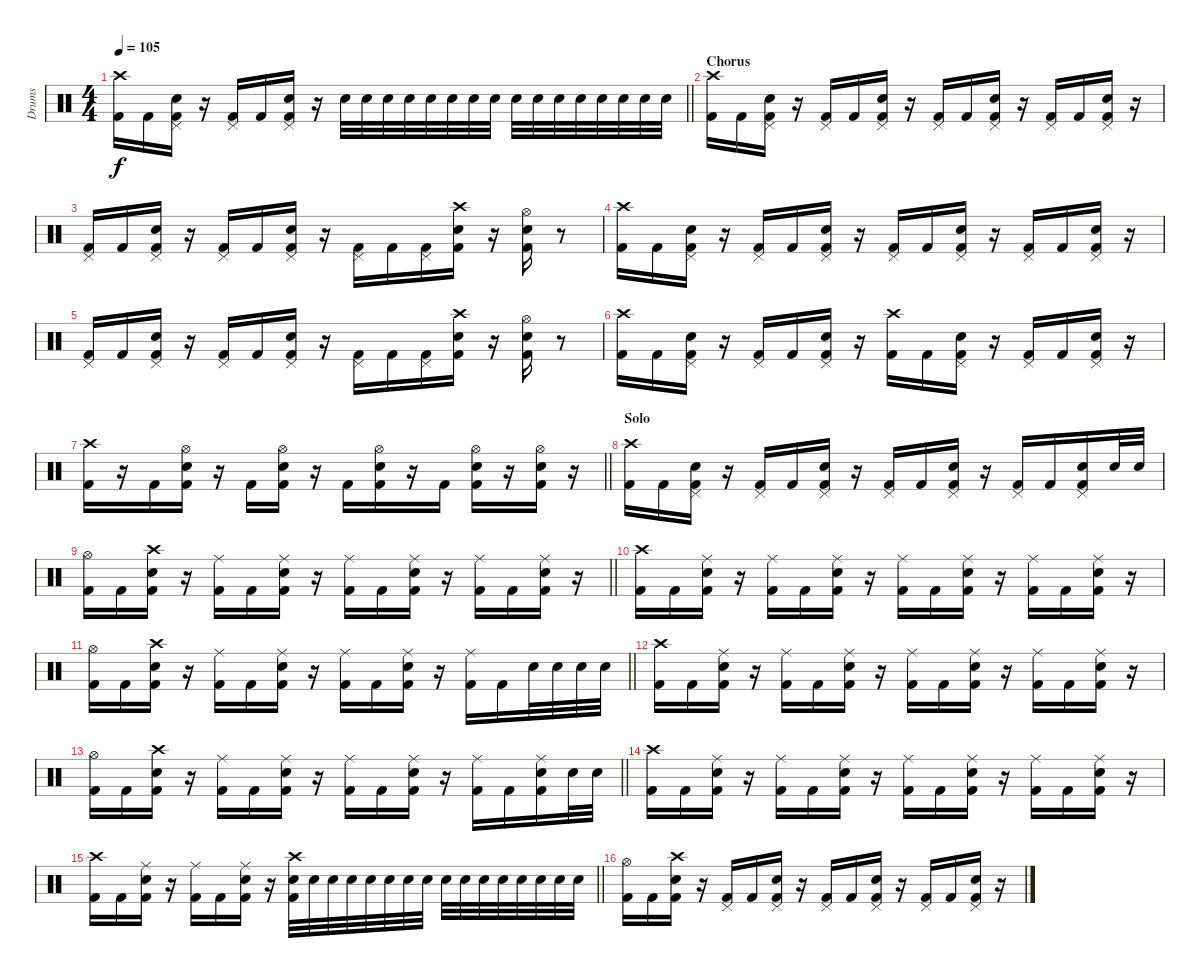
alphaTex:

\track ("Drums" "Drums") {instrument percussion}
\staff {score}
\articulation defaults
\ts (4 4)
\tempo 105
\clef neutral
\barLineRight lightlight
\ks c
("Crash high (hit)" "Kick (hit) 2").16{dy f} "Kick (hit) 2".16 ("Pedal Hi-Hat (hit)" "Snare (hit) 2" "Kick (hit) 2").16 r.16 ("Pedal Hi-Hat (hit)" "Kick (hit) 2").16 "Kick (hit) 2".16 ("Pedal Hi-Hat (hit)" "Snare (hit) 2" "Kick (hit) 2").16 r.16 "Snare (hit) 2".32 "Snare (hit) 2".32 "Snare (hit) 2".32 "Snare (hit) 2".32 "Snare (hit) 2".32 "Snare (hit) 2".32 "Snare (hit) 2".32 "Snare (hit) 2".32 "Snare (hit) 2".32 "Snare (hit) 2".32 "Snare (hit) 2".32 "Snare (hit) 2".32 "Snare (hit) 2".32 "Snare (hit) 2".32 "Snare (hit) 2".32 "Snare (hit) 2".32 |
\section ("" "Chorus")
("Crash high (hit)" "Kick (hit) 2").16 "Kick (hit) 2".16 ("Pedal Hi-Hat (hit)" "Snare (hit) 2" "Kick (hit) 2").16 r.16 ("Pedal Hi-Hat (hit)" "Kick (hit) 2").16 "Kick (hit) 2".16 ("Pedal Hi-Hat (hit)" "Snare (hit) 2" "Kick (hit) 2").16 r.16 ("Pedal Hi-Hat (hit)" "Kick (hit) 2").16 "Kick (hit) 2".16 ("Pedal Hi-Hat (hit)" "Snare (hit) 2" "Kick (hit) 2").16 r.16 ("Pedal Hi-Hat (hit)" "Kick (hit) 2").16 "Kick (hit) 2".16 ("Pedal Hi-Hat (hit)" "Snare (hit) 2" "Kick (hit) 2").16 r.16 |
("Pedal Hi-Hat (hit)" "Kick (hit) 2").16 "Kick (hit) 2".16 ("Pedal Hi-Hat (hit)" "Snare (hit) 2" "Kick (hit) 2").16 r.16 ("Pedal Hi-Hat (hit)" "Kick (hit) 2").16 "Kick (hit) 2".16 ("Pedal Hi-Hat (hit)" "Snare (hit) 2" "Kick (hit) 2").16 r.16 ("Pedal Hi-Hat (hit)" "Kick (hit) 2").16 "Kick (hit) 2".16 ("Pedal Hi-Hat (hit)" "Kick (hit) 2").16 ("Crash high (hit)" "Snare (hit) 2" "Kick (hit) 2").16 r.16 ("Hi-Hat (open)" "Snare (hit) 2" "Kick (hit) 2").16 r.8 |
("Crash high (hit)" "Kick (hit) 2").16 "Kick (hit) 2".16 ("Pedal Hi-Hat (hit)" "Snare (hit) 2" "Kick (hit) 2").16 r.16 ("Pedal Hi-Hat (hit)" "Kick (hit) 2").16 "Kick (hit) 2".16 ("Pedal Hi-Hat (hit)" "Snare (hit) 2" "Kick (hit) 2").16 r.16 ("Pedal Hi-Hat (hit)" "Kick (hit) 2").16 "Kick (hit) 2".16 ("Pedal Hi-Hat (hit)" "Snare (hit) 2" "Kick (hit) 2").16 r.16 ("Pedal Hi-Hat (hit)" "Kick (hit) 2").16 "Kick (hit) 2".16 ("Pedal Hi-Hat (hit)" "Snare (hit) 2" "Kick (hit) 2").16 r.16 |
("Pedal Hi-Hat (hit)" "Kick (hit) 2").16 "Kick (hit) 2".16 ("Pedal Hi-Hat (hit)" "Snare (hit) 2" "Kick (hit) 2").16 r.16 ("Pedal Hi-Hat (hit)" "Kick (hit) 2").16 "Kick (hit) 2".16 ("Pedal Hi-Hat (hit)" "Snare (hit) 2" "Kick (hit) 2").16 r.16 ("Pedal Hi-Hat (hit)" "Kick (hit) 2").16 "Kick (hit) 2".16 ("Pedal Hi-Hat (hit)" "Kick (hit) 2").16 ("Crash high (hit)" "Snare (hit) 2" "Kick (hit) 2").16 r.16 ("Hi-Hat (open)" "Snare (hit) 2" "Kick (hit) 2").16 r.8 |
("Crash high (hit)" "Kick (hit) 2").16 "Kick (hit) 2".16 ("Pedal Hi-Hat (hit)" "Snare (hit) 2" "Kick (hit) 2").16 r.16 ("Pedal Hi-Hat (hit)" "Kick (hit) 2").16 "Kick (hit) 2".16 ("Pedal Hi-Hat (hit)" "Snare (hit) 2" "Kick (hit) 2").16 r.16 ("Crash high (hit)" "Kick (hit) 2").16 "Kick (hit) 2".16 ("Pedal Hi-Hat (hit)" "Snare (hit) 2" "Kick (hit) 2").16 r.16 ("Pedal Hi-Hat (hit)" "Kick (hit) 2").16 "Kick (hit) 2".16 ("Pedal Hi-Hat (hit)" "Snare (hit) 2" "Kick (hit) 2").16 r.16 |
\barLineRight lightlight
("Crash high (hit)" "Kick (hit) 2").16 r.16 "Kick (hit) 2".16 ("Hi-Hat (open)" "Snare (hit) 2" "Kick (hit) 2").16 r.16 "Kick (hit) 2".16 ("Hi-Hat (open)" "Snare (hit) 2" "Kick (hit) 2").16 r.16 "Kick (hit) 2".16 ("Hi-Hat (open)" "Snare (hit) 2" "Kick (hit) 2").16 r.16 "Kick (hit) 2".16 ("Hi-Hat (open)" "Snare (hit) 2" "Kick (hit) 2").16 r.16 ("Hi-Hat (open)" "Snare (hit) 2" "Kick (hit) 2").16 r.16 |
\section ("" "Solo")
("Crash high (hit)" "Kick (hit) 2").16 "Kick (hit) 2".16 ("Pedal Hi-Hat (hit)" "Snare (hit) 2" "Kick (hit) 2").16 r.16 ("Pedal Hi-Hat (hit)" "Kick (hit) 2").16 "Kick (hit) 2".16 ("Pedal Hi-Hat (hit)" "Snare (hit) 2" "Kick (hit) 2").16 r.16 ("Pedal Hi-Hat (hit)" "Kick (hit) 2").16 "Kick (hit) 2".16 ("Pedal Hi-Hat (hit)" "Snare (hit) 2" "Kick (hit) 2").16 r.16 ("Pedal Hi-Hat (hit)" "Kick (hit) 2").16 "Kick (hit) 2".16 ("Pedal Hi-Hat (hit)" "Snare (hit) 2" "Kick (hit) 2").16 "Snare (hit) 2".32 "Snare (hit) 2".32 |
\barLineRight lightlight
("Hi-Hat (open)" "Kick (hit) 2").16 "Kick (hit) 2".16 ("Crash high (hit)" "Snare (hit) 2" "Kick (hit) 2").16 r.16 ("Ride (middle)" "Kick (hit) 2").16 "Kick (hit) 2".16 ("Ride (middle)" "Snare (hit) 2" "Kick (hit) 2").16 r.16 ("Ride (middle)" "Kick (hit) 2").16 "Kick (hit) 2".16 ("Ride (middle)" "Snare (hit) 2" "Kick (hit) 2").16 r.16 ("Ride (middle)" "Kick (hit) 2").16 "Kick (hit) 2".16 ("Ride (middle)" "Snare (hit) 2" "Kick (hit) 2").16 r.16 |
("Crash high (hit)" "Kick (hit) 2").16 "Kick (hit) 2".16 ("Ride (middle)" "Snare (hit) 2" "Kick (hit) 2").16 r.16 ("Ride (middle)" "Kick (hit) 2").16 "Kick (hit) 2".16 ("Ride (middle)" "Snare (hit) 2" "Kick (hit) 2").16 r.16 ("Ride (middle)" "Kick (hit) 2").16 "Kick (hit) 2".16 ("Ride (middle)" "Snare (hit) 2" "Kick (hit) 2").16 r.16 ("Ride (middle)" "Kick (hit) 2").16 "Kick (hit) 2".16 ("Ride (middle)" "Snare (hit) 2" "Kick (hit) 2").16 r.16 |
\barLineRight lightlight
("Hi-Hat (open)" "Kick (hit) 2").16 "Kick (hit) 2".16 ("Crash high (hit)" "Snare (hit) 2" "Kick (hit) 2").16 r.16 ("Ride (middle)" "Kick (hit) 2").16 "Kick (hit) 2".16 ("Ride (middle)" "Snare (hit) 2" "Kick (hit) 2").16 r.16 ("Ride (middle)" "Kick (hit) 2").16 "Kick (hit) 2".16 ("Ride (middle)" "Snare (hit) 2" "Kick (hit) 2").16 r.16 ("Ride (middle)" "Kick (hit) 2").16 "Kick (hit) 2".16 "Snare (hit) 2".32 "Snare (hit) 2".32 "Snare (hit) 2".32 "Snare (hit) 2".32 |
("Crash high (hit)" "Kick (hit) 2").16 "Kick (hit) 2".16 ("Ride (middle)" "Snare (hit) 2" "Kick (hit) 2").16 r.16 ("Ride (middle)" "Kick (hit) 2").16 "Kick (hit) 2".16 ("Ride (middle)" "Snare (hit) 2" "Kick (hit) 2").16 r.16 ("Ride (middle)" "Kick (hit) 2").16 "Kick (hit) 2".16 ("Ride (middle)" "Snare (hit) 2" "Kick (hit) 2").16 r.16 ("Ride (middle)" "Kick (hit) 2").16 "Kick (hit) 2".16 ("Ride (middle)" "Snare (hit) 2" "Kick (hit) 2").16 r.16 |
\barLineRight lightlight
("Hi-Hat (open)" "Kick (hit) 2").16 "Kick (hit) 2".16 ("Crash high (hit)" "Snare (hit) 2" "Kick (hit) 2").16 r.16 ("Ride (middle)" "Kick (hit) 2").16 "Kick (hit) 2".16 ("Ride (middle)" "Snare (hit) 2" "Kick (hit) 2").16 r.16 ("Ride (middle)" "Kick (hit) 2").16 "Kick (hit) 2".16 ("Ride (middle)" "Snare (hit) 2" "Kick (hit) 2").16 r.16 ("Ride (middle)" "Kick (hit) 2").16 "Kick (hit) 2".16 ("Ride (middle)" "Snare (hit) 2" "Kick (hit) 2").16 "Snare (hit) 2".32 "Snare (hit) 2".32 |
("Crash high (hit)" "Kick (hit) 2").16 "Kick (hit) 2".16 ("Ride (middle)" "Snare (hit) 2" "Kick (hit) 2").16 r.16 ("Ride (middle)" "Kick (hit) 2").16 "Kick (hit) 2".16 ("Ride (middle)" "Snare (hit) 2" "Kick (hit) 2").16 r.16 ("Ride (middle)" "Kick (hit) 2").16 "Kick (hit) 2".16 ("Ride (middle)" "Snare (hit) 2" "Kick (hit) 2").16 r.16 ("Ride (middle)" "Kick (hit) 2").16 "Kick (hit) 2".16 ("Ride (middle)" "Snare (hit) 2" "Kick (hit) 2").16 r.16 |
\barLineRight lightlight
("Crash high (hit)" "Kick (hit) 2").16 "Kick (hit) 2".16 ("Ride (middle)" "Snare (hit) 2" "Kick (hit) 2").16 r.16 ("Ride (middle)" "Kick (hit) 2").16 "Kick (hit) 2".16 ("Ride (middle)" "Snare (hit) 2" "Kick (hit) 2").16 r.16 ("Crash high (hit)" "Snare (hit) 2" "Kick (hit) 2").32 "Snare (hit) 2".32 "Snare (hit) 2".32 "Snare (hit) 2".32 "Snare (hit) 2".32 "Snare (hit) 2".32 "Snare (hit) 2".32 "Snare (hit) 2".32 "Snare (hit) 2".32 "Snare (hit) 2".32 "Snare (hit) 2".32 "Snare (hit) 2".32 "Snare (hit) 2".32 "Snare (hit) 2".32 "Snare (hit) 2".32 "Snare (hit) 2".32 |
("Hi-Hat (open)" "Kick (hit) 2").16 "Kick (hit) 2".16 ("Crash high (hit)" "Snare (hit) 2" "Kick (hit) 2").16 r.16 ("Pedal Hi-Hat (hit)" "Kick (hit) 2").16 "Kick (hit) 2".16 ("Pedal Hi-Hat (hit)" "Snare (hit) 2" "Kick (hit) 2").16 r.16 ("Pedal Hi-Hat (hit)" "Kick (hit) 2").16 "Kick (hit) 2".16 ("Pedal Hi-Hat (hit)" "Snare (hit) 2" "Kick (hit) 2").16 r.16 ("Pedal Hi-Hat (hit)" "Kick (hit) 2").16 "Kick (hit) 2".16 ("Pedal Hi-Hat (hit)" "Snare (hit) 2" "Kick (hit) 2").16 r.16
